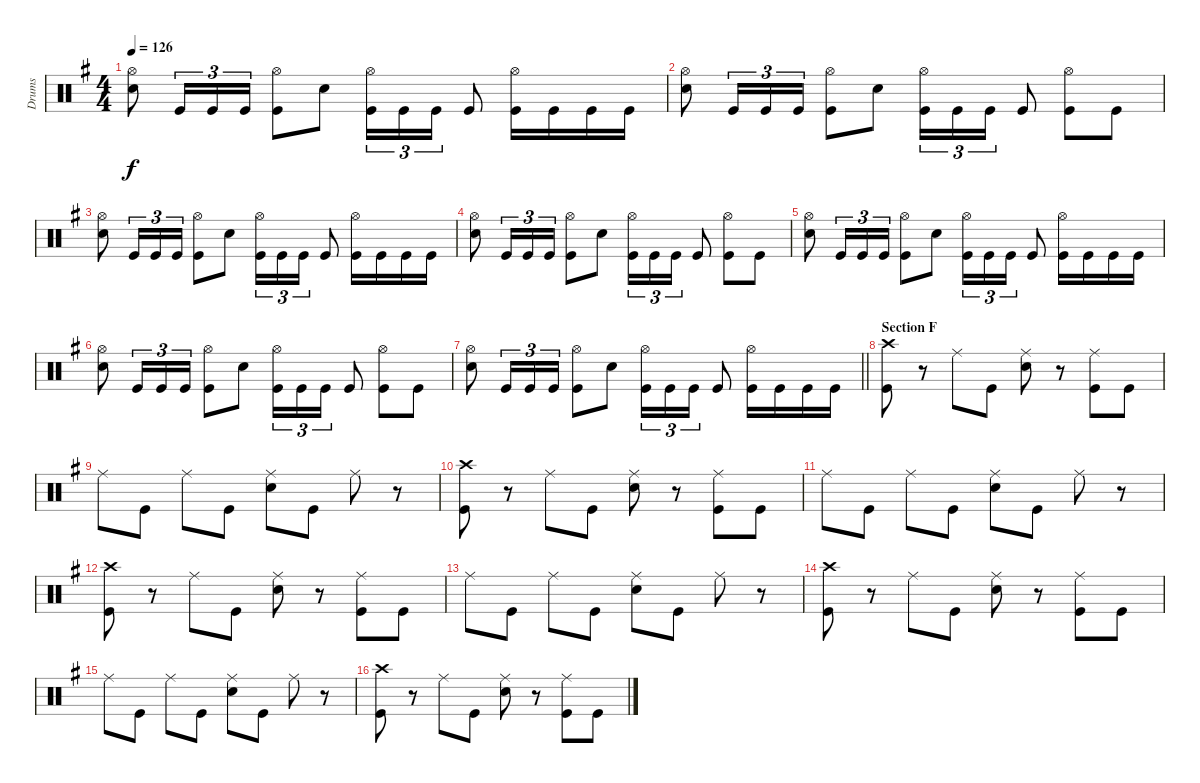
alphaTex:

\track ("Drums" "Drums") {instrument percussion}
\staff {score}
\articulation defaults
\ts (4 4)
\tempo 126
\clef neutral
\ks eminor
("Hi-Hat (open)" "Snare (hit) 2").8{dy f} "Kick (hit)".16{tu (3 2)} "Kick (hit)".16{tu (3 2)} "Kick (hit)".16{tu (3 2)} ("Hi-Hat (open)" "Kick (hit)").8 "Snare (hit) 2".8 ("Hi-Hat (open)" "Kick (hit)").16{tu (3 2)} "Kick (hit)".16{tu (3 2)} "Kick (hit)".16{tu (3 2)} "Kick (hit)".8 ("Hi-Hat (open)" "Kick (hit)").16 "Kick (hit)".16 "Kick (hit)".16 "Kick (hit)".16 |
("Hi-Hat (open)" "Snare (hit) 2").8 "Kick (hit)".16{tu (3 2)} "Kick (hit)".16{tu (3 2)} "Kick (hit)".16{tu (3 2)} ("Hi-Hat (open)" "Kick (hit)").8 "Snare (hit) 2".8 ("Hi-Hat (open)" "Kick (hit)").16{tu (3 2)} "Kick (hit)".16{tu (3 2)} "Kick (hit)".16{tu (3 2)} "Kick (hit)".8 ("Hi-Hat (open)" "Kick (hit)").8 "Kick (hit)".8 |
("Hi-Hat (open)" "Snare (hit) 2").8 "Kick (hit)".16{tu (3 2)} "Kick (hit)".16{tu (3 2)} "Kick (hit)".16{tu (3 2)} ("Hi-Hat (open)" "Kick (hit)").8 "Snare (hit) 2".8 ("Hi-Hat (open)" "Kick (hit)").16{tu (3 2)} "Kick (hit)".16{tu (3 2)} "Kick (hit)".16{tu (3 2)} "Kick (hit)".8 ("Hi-Hat (open)" "Kick (hit)").16 "Kick (hit)".16 "Kick (hit)".16 "Kick (hit)".16 |
("Hi-Hat (open)" "Snare (hit) 2").8 "Kick (hit)".16{tu (3 2)} "Kick (hit)".16{tu (3 2)} "Kick (hit)".16{tu (3 2)} ("Hi-Hat (open)" "Kick (hit)").8 "Snare (hit) 2".8 ("Hi-Hat (open)" "Kick (hit)").16{tu (3 2)} "Kick (hit)".16{tu (3 2)} "Kick (hit)".16{tu (3 2)} "Kick (hit)".8 ("Hi-Hat (open)" "Kick (hit)").8 "Kick (hit)".8 |
("Hi-Hat (open)" "Snare (hit) 2").8 "Kick (hit)".16{tu (3 2)} "Kick (hit)".16{tu (3 2)} "Kick (hit)".16{tu (3 2)} ("Hi-Hat (open)" "Kick (hit)").8 "Snare (hit) 2".8 ("Hi-Hat (open)" "Kick (hit)").16{tu (3 2)} "Kick (hit)".16{tu (3 2)} "Kick (hit)".16{tu (3 2)} "Kick (hit)".8 ("Hi-Hat (open)" "Kick (hit)").16 "Kick (hit)".16 "Kick (hit)".16 "Kick (hit)".16 |
("Hi-Hat (open)" "Snare (hit) 2").8 "Kick (hit)".16{tu (3 2)} "Kick (hit)".16{tu (3 2)} "Kick (hit)".16{tu (3 2)} ("Hi-Hat (open)" "Kick (hit)").8 "Snare (hit) 2".8 ("Hi-Hat (open)" "Kick (hit)").16{tu (3 2)} "Kick (hit)".16{tu (3 2)} "Kick (hit)".16{tu (3 2)} "Kick (hit)".8 ("Hi-Hat (open)" "Kick (hit)").8 "Kick (hit)".8 |
\barLineRight lightlight
("Hi-Hat (open)" "Snare (hit) 2").8 "Kick (hit)".16{tu (3 2)} "Kick (hit)".16{tu (3 2)} "Kick (hit)".16{tu (3 2)} ("Hi-Hat (open)" "Kick (hit)").8 "Snare (hit) 2".8 ("Hi-Hat (open)" "Kick (hit)").16{tu (3 2)} "Kick (hit)".16{tu (3 2)} "Kick (hit)".16{tu (3 2)} "Kick (hit)".8 ("Hi-Hat (open)" "Kick (hit)").16 "Kick (hit)".16 "Kick (hit)".16 "Kick (hit)".16 |
\section ("" "Section F")
("Crash high (hit)" "Kick (hit)").8 r.8 "Ride (middle)".8 "Kick (hit)".8 ("Ride (middle)" "Snare (hit) 2").8 r.8 ("Ride (middle)" "Kick (hit)").8 "Kick (hit)".8 |
"Ride (middle)".8 "Kick (hit)".8 "Ride (middle)".8 "Kick (hit)".8 ("Ride (middle)" "Snare (hit) 2").8 "Kick (hit)".8 "Ride (middle)".8 r.8 |
("Crash high (hit)" "Kick (hit)").8 r.8 "Ride (middle)".8 "Kick (hit)".8 ("Ride (middle)" "Snare (hit) 2").8 r.8 ("Ride (middle)" "Kick (hit)").8 "Kick (hit)".8 |
"Ride (middle)".8 "Kick (hit)".8 "Ride (middle)".8 "Kick (hit)".8 ("Ride (middle)" "Snare (hit) 2").8 "Kick (hit)".8 "Ride (middle)".8 r.8 |
("Crash high (hit)" "Kick (hit)").8 r.8 "Ride (middle)".8 "Kick (hit)".8 ("Ride (middle)" "Snare (hit) 2").8 r.8 ("Ride (middle)" "Kick (hit)").8 "Kick (hit)".8 |
"Ride (middle)".8 "Kick (hit)".8 "Ride (middle)".8 "Kick (hit)".8 ("Ride (middle)" "Snare (hit) 2").8 "Kick (hit)".8 "Ride (middle)".8 r.8 |
("Crash high (hit)" "Kick (hit)").8 r.8 "Ride (middle)".8 "Kick (hit)".8 ("Ride (middle)" "Snare (hit) 2").8 r.8 ("Ride (middle)" "Kick (hit)").8 "Kick (hit)".8 |
"Ride (middle)".8 "Kick (hit)".8 "Ride (middle)".8 "Kick (hit)".8 ("Ride (middle)" "Snare (hit) 2").8 "Kick (hit)".8 "Ride (middle)".8 r.8 |
("Crash high (hit)" "Kick (hit)").8 r.8 "Ride (middle)".8 "Kick (hit)".8 ("Ride (middle)" "Snare (hit) 2").8 r.8 ("Ride (middle)" "Kick (hit)").8 "Kick (hit)".8
